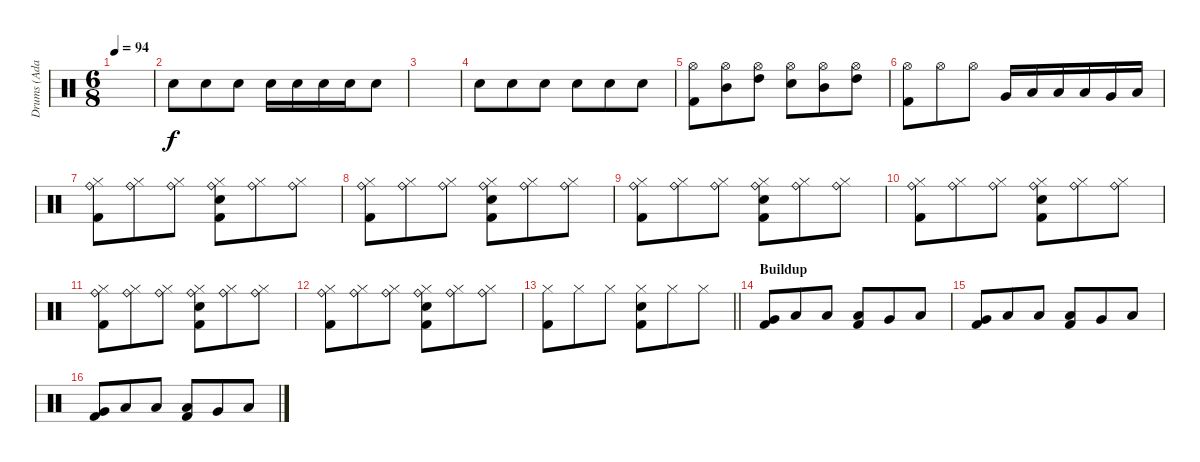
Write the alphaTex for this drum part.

\track ("Drums (Adam)" "Drums (Ada") {instrument percussion}
\staff {score}
\articulation defaults
\ts (6 8)
\tempo 94
\clef neutral
\ks c
|
"Snare (hit) 2".8 "Snare (hit) 2".8 "Snare (hit) 2".8 "Snare (hit) 2".16 "Snare (hit) 2".16 "Snare (hit) 2".16 "Snare (hit) 2".16 "Snare (hit) 2".8 |
|
"Snare (hit) 2".8 "Snare (hit) 2".8 "Snare (hit) 2".8 "Snare (hit) 2".8 "Snare (hit) 2".8 "Snare (hit) 2".8 |
("Hi-Hat (open)" "Kick (hit) 2").8 ("Hi-Hat (open)" "Mid Tom (hit)").8 ("Hi-Hat (open)" "High Tom (hit)").8 ("Hi-Hat (open)" "Snare (hit) 2").8 ("Hi-Hat (open)" "Mid Tom (hit)").8 ("Hi-Hat (open)" "High Tom (hit)").8 |
("Hi-Hat (open)" "Kick (hit) 2").8 "Hi-Hat (open)".8 "Hi-Hat (open)".8 "Very Low Tom (hit)".16 "Low Floor Tom (hit)".16 "Low Tom (hit)".16 "Low Floor Tom (hit)".16 "Very Low Tom (hit)".16 "Low Floor Tom (hit)".16 |
("Ride (bell)" "Hi-Hat (closed)" "Kick (hit) 2").8 ("Ride (bell)" "Hi-Hat (closed)").8 ("Ride (bell)" "Hi-Hat (closed)").8 ("Ride (bell)" "Hi-Hat (closed)" "Snare (hit) 2" "Kick (hit) 2").8 ("Ride (bell)" "Hi-Hat (closed)").8 ("Ride (bell)" "Hi-Hat (closed)").8 |
("Ride (bell)" "Hi-Hat (closed)" "Kick (hit) 2").8 ("Ride (bell)" "Hi-Hat (closed)").8 ("Ride (bell)" "Hi-Hat (closed)").8 ("Ride (bell)" "Hi-Hat (closed)" "Snare (hit) 2" "Kick (hit) 2").8 ("Ride (bell)" "Hi-Hat (closed)").8 ("Ride (bell)" "Hi-Hat (closed)").8 |
("Ride (bell)" "Hi-Hat (closed)" "Kick (hit) 2").8 ("Ride (bell)" "Hi-Hat (closed)").8 ("Ride (bell)" "Hi-Hat (closed)").8 ("Ride (bell)" "Hi-Hat (closed)" "Snare (hit) 2" "Kick (hit) 2").8 ("Ride (bell)" "Hi-Hat (closed)").8 ("Ride (bell)" "Hi-Hat (closed)").8 |
("Ride (bell)" "Hi-Hat (closed)" "Kick (hit) 2").8 ("Ride (bell)" "Hi-Hat (closed)").8 ("Ride (bell)" "Hi-Hat (closed)").8 ("Ride (bell)" "Hi-Hat (closed)" "Snare (hit) 2" "Kick (hit) 2").8 ("Ride (bell)" "Hi-Hat (closed)").8 ("Ride (bell)" "Hi-Hat (closed)").8 |
("Ride (bell)" "Hi-Hat (closed)" "Kick (hit) 2").8 ("Ride (bell)" "Hi-Hat (closed)").8 ("Ride (bell)" "Hi-Hat (closed)").8 ("Ride (bell)" "Hi-Hat (closed)" "Snare (hit) 2" "Kick (hit) 2").8 ("Ride (bell)" "Hi-Hat (closed)").8 ("Ride (bell)" "Hi-Hat (closed)").8 |
("Ride (bell)" "Hi-Hat (closed)" "Kick (hit) 2").8 ("Ride (bell)" "Hi-Hat (closed)").8 ("Ride (bell)" "Hi-Hat (closed)").8 ("Ride (bell)" "Hi-Hat (closed)" "Snare (hit) 2" "Kick (hit) 2").8 ("Ride (bell)" "Hi-Hat (closed)").8 ("Ride (bell)" "Hi-Hat (closed)").8 |
\barLineRight lightlight
("Hi-Hat (closed)" "Kick (hit) 2").8 "Hi-Hat (closed)".8 "Hi-Hat (closed)".8 ("Hi-Hat (closed)" "Snare (hit) 2" "Kick (hit) 2").8 "Hi-Hat (closed)".8 "Hi-Hat (closed)".8 |
\section ("" "Buildup")
("Very Low Tom (hit)" "Kick (hit) 2").8 "Low Floor Tom (hit)".8 "Low Tom (hit)".8 ("Low Floor Tom (hit)" "Kick (hit) 2").8 "Very Low Tom (hit)".8 "Low Floor Tom (hit)".8 |
("Very Low Tom (hit)" "Kick (hit) 2").8 "Low Floor Tom (hit)".8 "Low Tom (hit)".8 ("Low Floor Tom (hit)" "Kick (hit) 2").8 "Very Low Tom (hit)".8 "Low Floor Tom (hit)".8 |
("Very Low Tom (hit)" "Kick (hit) 2").8 "Low Floor Tom (hit)".8 "Low Tom (hit)".8 ("Low Floor Tom (hit)" "Kick (hit) 2").8 "Very Low Tom (hit)".8 "Low Floor Tom (hit)".8
